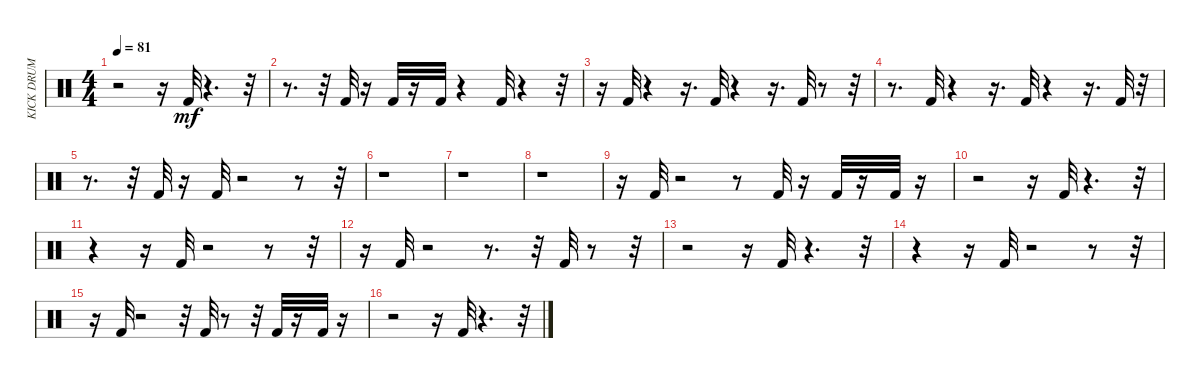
\track ("KICK DRUM LOW." "KICK DRUM ") {instrument percussion}
\staff {score}
\articulation defaults
\ts (4 4)
\tempo 81
\clef neutral
\ks c
r.2{dy mf} r.16 "Kick (hit) 2".32 r.4{d} r.32 |
r.8{d} r.32 "Kick (hit) 2".32 r.16 "Kick (hit) 2".32 r.16 "Kick (hit) 2".32 r.4 "Kick (hit) 2".32 r.4 r.32 |
r.16 "Kick (hit) 2".32 r.4 r.16{d} "Kick (hit) 2".32 r.4 r.16{d} "Kick (hit) 2".32 r.8 r.32 |
r.8{d} "Kick (hit) 2".32 r.4 r.16{d} "Kick (hit) 2".32 r.4 r.16{d} "Kick (hit) 2".32 r.32 |
r.8{d} r.32 "Kick (hit) 2".32 r.16 "Kick (hit) 2".32 r.2 r.8 r.32 |
r.1 |
r.1 |
r.1 |
r.16 "Kick (hit) 2".32 r.2 r.8 "Kick (hit) 2".32 r.16 "Kick (hit) 2".32 r.16 "Kick (hit) 2".32 r.16 |
r.2 r.16 "Kick (hit) 2".32 r.4{d} r.32 |
r.4 r.16 "Kick (hit) 2".32 r.2 r.8 r.32 |
r.16 "Kick (hit) 2".32 r.2 r.8{d} r.32 "Kick (hit) 2".32 r.8 r.32 |
r.2 r.16 "Kick (hit) 2".32 r.4{d} r.32 |
r.4 r.16 "Kick (hit) 2".32 r.2 r.8 r.32 |
r.16 "Kick (hit) 2".32 r.2 r.32 "Kick (hit) 2".32 r.8 r.32 "Kick (hit) 2".32 r.16 "Kick (hit) 2".32 r.16 |
r.2 r.16 "Kick (hit) 2".32 r.4{d} r.32
